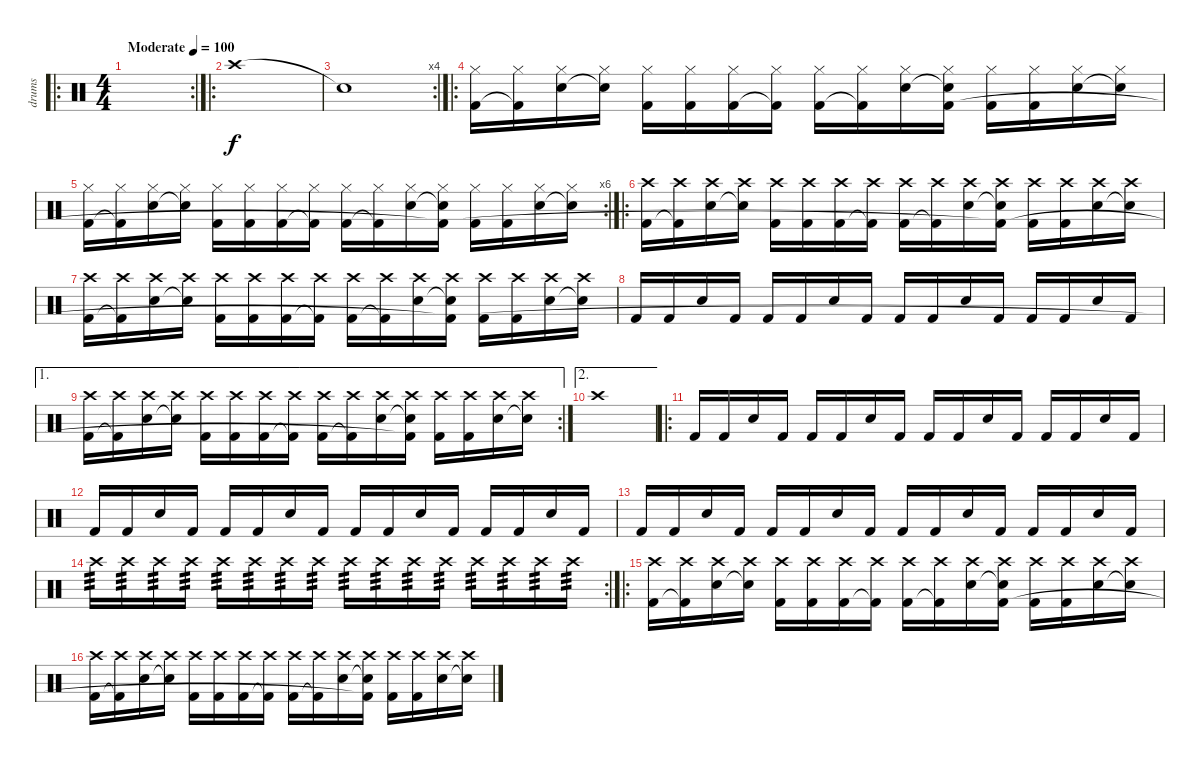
\track ("drums" "drums") {instrument percussion}
\staff {score}
\articulation defaults
\ro
\rc 2
\ts (4 4)
\tempo (100 "Moderate")
\clef neutral
\ks c
|
\ro "Crash high (hit)".1
|
\rc 4 "Snare (hit)"{t}.1
|
\ro
("Hi-Hat (closed)" "Kick (hit) 2").16 ("Hi-Hat (closed)" "Kick (hit) 2"{t}).16 ("Hi-Hat (closed)" "Snare (hit) 2").16 ("Hi-Hat (closed)" "Snare (hit) 2"{t}).16 ("Hi-Hat (closed)" "Kick (hit) 2").16 ("Hi-Hat (closed)" "Kick (hit) 2").16 ("Hi-Hat (closed)" "Kick (hit) 2").16 ("Hi-Hat (closed)" "Kick (hit) 2"{t}).16 ("Hi-Hat (closed)" "Kick (hit) 2").16 ("Hi-Hat (closed)" "Kick (hit) 2"{t}).16 ("Hi-Hat (closed)" "Snare (hit) 2").16 ("Hi-Hat (closed)" "Snare (hit) 2"{t} "Kick (hit) 2").16 ("Hi-Hat (closed)" "Kick (hit) 2").16 ("Hi-Hat (closed)" "Kick (hit) 2").16 ("Hi-Hat (closed)" "Snare (hit) 2").16 ("Hi-Hat (closed)" "Snare (hit) 2"{t}).16 |
\rc 6
("Hi-Hat (closed)" "Kick (hit) 2").16 ("Hi-Hat (closed)" "Kick (hit) 2"{t}).16 ("Hi-Hat (closed)" "Snare (hit) 2").16 ("Hi-Hat (closed)" "Snare (hit) 2"{t}).16 ("Hi-Hat (closed)" "Kick (hit) 2").16 ("Hi-Hat (closed)" "Kick (hit) 2").16 ("Hi-Hat (closed)" "Kick (hit) 2").16 ("Hi-Hat (closed)" "Kick (hit) 2"{t}).16 ("Hi-Hat (closed)" "Kick (hit) 2").16 ("Hi-Hat (closed)" "Kick (hit) 2"{t}).16 ("Hi-Hat (closed)" "Snare (hit) 2").16 ("Hi-Hat (closed)" "Snare (hit) 2"{t} "Kick (hit) 2"{t}).16 ("Hi-Hat (closed)" "Kick (hit) 2").16 ("Hi-Hat (closed)" "Kick (hit) 2").16 ("Hi-Hat (closed)" "Snare (hit) 2").16 ("Hi-Hat (closed)" "Snare (hit) 2"{t}).16 |
\ro
("Crash high (hit)" "Kick (hit) 2").16 ("Crash high (hit)" "Kick (hit) 2"{t}).16 ("Crash high (hit)" "Snare (hit) 2").16 ("Crash high (hit)" "Snare (hit) 2"{t}).16 ("Crash high (hit)" "Kick (hit) 2").16 ("Crash high (hit)" "Kick (hit) 2").16 ("Crash high (hit)" "Kick (hit) 2").16 ("Crash high (hit)" "Kick (hit) 2"{t}).16 ("Crash high (hit)" "Kick (hit) 2").16 ("Crash high (hit)" "Kick (hit) 2"{t}).16 ("Crash high (hit)" "Snare (hit) 2").16 ("Crash high (hit)" "Snare (hit) 2"{t} "Kick (hit) 2"{t}).16 ("Crash high (hit)" "Kick (hit) 2").16 ("Crash high (hit)" "Kick (hit) 2").16 ("Crash high (hit)" "Snare (hit) 2").16 ("Crash high (hit)" "Snare (hit) 2"{t}).16 |
("Crash high (hit)" "Kick (hit) 2").16 ("Crash high (hit)" "Kick (hit) 2"{t}).16 ("Crash high (hit)" "Snare (hit) 2").16 ("Crash high (hit)" "Snare (hit) 2"{t}).16 ("Crash high (hit)" "Kick (hit) 2").16 ("Crash high (hit)" "Kick (hit) 2").16 ("Crash high (hit)" "Kick (hit) 2").16 ("Crash high (hit)" "Kick (hit) 2"{t}).16 ("Crash high (hit)" "Kick (hit) 2").16 ("Crash high (hit)" "Kick (hit) 2"{t}).16 ("Crash high (hit)" "Snare (hit) 2").16 ("Crash high (hit)" "Snare (hit) 2"{t} "Kick (hit) 2"{t}).16 ("Crash high (hit)" "Kick (hit) 2").16 ("Crash high (hit)" "Kick (hit) 2").16 ("Crash high (hit)" "Snare (hit) 2").16 ("Crash high (hit)" "Snare (hit) 2"{t}).16 |
"Kick (hit) 2".16 "Kick (hit) 2".16 "Snare (hit) 2".16 "Kick (hit) 2".16 "Kick (hit) 2".16 "Kick (hit) 2".16 "Snare (hit) 2".16 "Kick (hit) 2".16 "Kick (hit) 2".16 "Kick (hit) 2".16 "Snare (hit) 2".16 "Kick (hit) 2".16 "Kick (hit) 2".16 "Kick (hit) 2".16 "Snare (hit) 2".16 "Kick (hit) 2".16 |
\ae 1
\rc 2
("Crash high (hit)" "Kick (hit) 2").16 ("Crash high (hit)" "Kick (hit) 2"{t}).16 ("Crash high (hit)" "Snare (hit) 2").16 ("Crash high (hit)" "Snare (hit) 2"{t}).16 ("Crash high (hit)" "Kick (hit) 2").16 ("Crash high (hit)" "Kick (hit) 2").16 ("Crash high (hit)" "Kick (hit) 2").16 ("Crash high (hit)" "Kick (hit) 2"{t}).16 ("Crash high (hit)" "Kick (hit) 2").16 ("Crash high (hit)" "Kick (hit) 2"{t}).16 ("Crash high (hit)" "Snare (hit) 2").16 ("Crash high (hit)" "Snare (hit) 2"{t} "Kick (hit) 2"{t}).16 ("Crash high (hit)" "Kick (hit) 2").16 ("Crash high (hit)" "Kick (hit) 2").16 ("Crash high (hit)" "Snare (hit) 2").16 ("Crash high (hit)" "Snare (hit) 2"{t}).16 |
\ae 2 "Crash high (hit)".1
|
\ro "Kick (hit) 2".16 "Kick (hit) 2".16 "Snare (hit) 2".16 "Kick (hit) 2".16 "Kick (hit) 2".16 "Kick (hit) 2".16 "Snare (hit) 2".16 "Kick (hit) 2".16 "Kick (hit) 2".16 "Kick (hit) 2".16 "Snare (hit) 2".16 "Kick (hit) 2".16 "Kick (hit) 2".16 "Kick (hit) 2".16 "Snare (hit) 2".16 "Kick (hit) 2".16
|
"Kick (hit) 2".16 "Kick (hit) 2".16 "Snare (hit) 2".16 "Kick (hit) 2".16 "Kick (hit) 2".16 "Kick (hit) 2".16 "Snare (hit) 2".16 "Kick (hit) 2".16 "Kick (hit) 2".16 "Kick (hit) 2".16 "Snare (hit) 2".16 "Kick (hit) 2".16 "Kick (hit) 2".16 "Kick (hit) 2".16 "Snare (hit) 2".16 "Kick (hit) 2".16 |
"Kick (hit) 2".16 "Kick (hit) 2".16 "Snare (hit) 2".16 "Kick (hit) 2".16 "Kick (hit) 2".16 "Kick (hit) 2".16 "Snare (hit) 2".16 "Kick (hit) 2".16 "Kick (hit) 2".16 "Kick (hit) 2".16 "Snare (hit) 2".16 "Kick (hit) 2".16 "Kick (hit) 2".16 "Kick (hit) 2".16 "Snare (hit) 2".16 "Kick (hit) 2".16 |
\rc 2 "Crash high (hit)".16{tp 3} "Crash high (hit)".16{tp 3} "Crash high (hit)".16{tp 3} "Crash high (hit)".16{tp 3} "Crash high (hit)".16{tp 3} "Crash high (hit)".16{tp 3} "Crash high (hit)".16{tp 3} "Crash high (hit)".16{tp 3} "Crash high (hit)".16{tp 3} "Crash high (hit)".16{tp 3} "Crash high (hit)".16{tp 3} "Crash high (hit)".16{tp 3} "Crash high (hit)".16{tp 3} "Crash high (hit)".16{tp 3} "Crash high (hit)".16{tp 3} "Crash high (hit)".16{tp 3}
|
\ro
("Crash high (hit)" "Kick (hit) 2").16 ("Crash high (hit)" "Kick (hit) 2"{t}).16 ("Crash high (hit)" "Snare (hit) 2").16 ("Crash high (hit)" "Snare (hit) 2"{t}).16 ("Crash high (hit)" "Kick (hit) 2").16 ("Crash high (hit)" "Kick (hit) 2").16 ("Crash high (hit)" "Kick (hit) 2").16 ("Crash high (hit)" "Kick (hit) 2"{t}).16 ("Crash high (hit)" "Kick (hit) 2").16 ("Crash high (hit)" "Kick (hit) 2"{t}).16 ("Crash high (hit)" "Snare (hit) 2").16 ("Crash high (hit)" "Snare (hit) 2"{t} "Kick (hit) 2").16 ("Crash high (hit)" "Kick (hit) 2").16 ("Crash high (hit)" "Kick (hit) 2").16 ("Crash high (hit)" "Snare (hit) 2").16 ("Crash high (hit)" "Snare (hit) 2"{t}).16 |
("Crash high (hit)" "Kick (hit) 2").16 ("Crash high (hit)" "Kick (hit) 2"{t}).16 ("Crash high (hit)" "Snare (hit) 2").16 ("Crash high (hit)" "Snare (hit) 2"{t}).16 ("Crash high (hit)" "Kick (hit) 2").16 ("Crash high (hit)" "Kick (hit) 2").16 ("Crash high (hit)" "Kick (hit) 2").16 ("Crash high (hit)" "Kick (hit) 2"{t}).16 ("Crash high (hit)" "Kick (hit) 2").16 ("Crash high (hit)" "Kick (hit) 2"{t}).16 ("Crash high (hit)" "Snare (hit) 2").16 ("Crash high (hit)" "Snare (hit) 2"{t} "Kick (hit) 2"{t}).16 ("Crash high (hit)" "Kick (hit) 2").16 ("Crash high (hit)" "Kick (hit) 2").16 ("Crash high (hit)" "Snare (hit) 2").16 ("Crash high (hit)" "Snare (hit) 2"{t}).16
